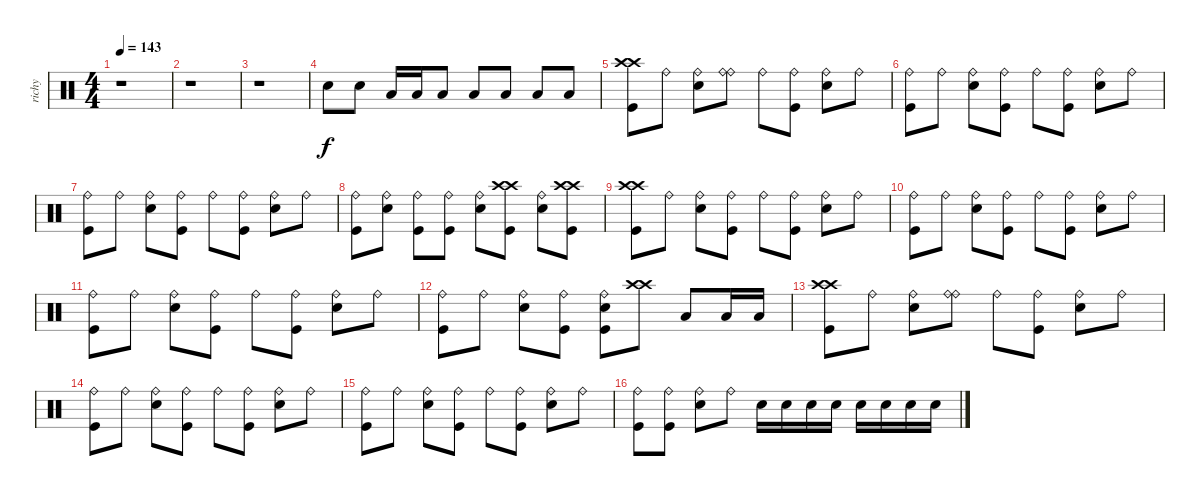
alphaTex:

\track ("richy" "richy") {instrument percussion}
\staff {score}
\articulation defaults
\ts (4 4)
\tempo 143
\clef neutral
\ks c
r.1{dy f} |
r.1 |
r.1 |
"Snare (hit) 2".8 "Snare (hit) 2".8 "Low Tom (hit)".16 "Low Tom (hit)".16 "Low Tom (hit)".8 "Low Floor Tom (hit)".8 "Low Floor Tom (hit)".8 "Low Floor Tom (hit)".8 "Low Floor Tom (hit)".8 |
("Kick (hit)" "Crash high (hit)" "Crash high (hit)").8 "Ride (bell)".8 ("Snare (hit) 2" "Ride (bell)").8 ("Ride (bell)" "Ride (bell)").8 "Ride (bell)".8 ("Kick (hit)" "Ride (bell)").8 ("Snare (hit) 2" "Ride (bell)").8 "Ride (bell)".8 |
("Kick (hit)" "Ride (bell)").8 "Ride (bell)".8 ("Snare (hit) 2" "Ride (bell)").8 ("Kick (hit)" "Ride (bell)").8 "Ride (bell)".8 ("Kick (hit)" "Ride (bell)").8 ("Snare (hit) 2" "Ride (bell)").8 "Ride (bell)".8 |
("Kick (hit)" "Ride (bell)").8 "Ride (bell)".8 ("Snare (hit) 2" "Ride (bell)").8 ("Kick (hit)" "Ride (bell)").8 "Ride (bell)".8 ("Kick (hit)" "Ride (bell)").8 ("Snare (hit) 2" "Ride (bell)").8 "Ride (bell)".8 |
("Kick (hit)" "Ride (bell)").8 ("Snare (hit) 2" "Ride (bell)").8 ("Kick (hit)" "Ride (bell)").8 ("Kick (hit)" "Ride (bell)").8 ("Snare (hit) 2" "Ride (bell)").8 ("Kick (hit)" "Crash high (hit)" "Crash high (hit)").8 ("Snare (hit) 2" "Ride (bell)").8 ("Kick (hit)" "Crash high (hit)" "Crash high (hit)").8 |
("Kick (hit)" "Crash high (hit)" "Crash high (hit)").8 "Ride (bell)".8 ("Snare (hit) 2" "Ride (bell)").8 ("Kick (hit)" "Ride (bell)").8 "Ride (bell)".8 ("Kick (hit)" "Ride (bell)").8 ("Snare (hit) 2" "Ride (bell)").8 "Ride (bell)".8 |
("Kick (hit)" "Ride (bell)").8 "Ride (bell)".8 ("Snare (hit) 2" "Ride (bell)").8 ("Kick (hit)" "Ride (bell)").8 "Ride (bell)".8 ("Kick (hit)" "Ride (bell)").8 ("Snare (hit) 2" "Ride (bell)").8 "Ride (bell)".8 |
("Kick (hit)" "Ride (bell)").8 "Ride (bell)".8 ("Snare (hit) 2" "Ride (bell)").8 ("Kick (hit)" "Ride (bell)").8 "Ride (bell)".8 ("Kick (hit)" "Ride (bell)").8 ("Snare (hit) 2" "Ride (bell)").8 "Ride (bell)".8 |
("Kick (hit)" "Ride (bell)").8 "Ride (bell)".8 ("Snare (hit) 2" "Ride (bell)").8 ("Kick (hit)" "Ride (bell)").8 ("Kick (hit)" "Snare (hit) 2" "Ride (bell)").8 ("Crash high (hit)" "Crash high (hit)").8 "Low Tom (hit)".8 "Low Tom (hit)".16 "Low Tom (hit)".16 |
("Kick (hit)" "Crash high (hit)" "Crash high (hit)").8 "Ride (bell)".8 ("Snare (hit) 2" "Ride (bell)").8 ("Ride (bell)" "Ride (bell)").8 "Ride (bell)".8 ("Kick (hit)" "Ride (bell)").8 ("Snare (hit) 2" "Ride (bell)").8 "Ride (bell)".8 |
("Kick (hit)" "Ride (bell)").8 "Ride (bell)".8 ("Snare (hit) 2" "Ride (bell)").8 ("Kick (hit)" "Ride (bell)").8 "Ride (bell)".8 ("Kick (hit)" "Ride (bell)").8 ("Snare (hit) 2" "Ride (bell)").8 "Ride (bell)".8 |
("Kick (hit)" "Ride (bell)").8 "Ride (bell)".8 ("Snare (hit) 2" "Ride (bell)").8 ("Kick (hit)" "Ride (bell)").8 "Ride (bell)".8 ("Kick (hit)" "Ride (bell)").8 ("Snare (hit) 2" "Ride (bell)").8 "Ride (bell)".8 |
("Kick (hit)" "Ride (bell)").8 ("Kick (hit)" "Ride (bell)").8 ("Snare (hit) 2" "Ride (bell)").8 "Ride (bell)".8 "Snare (hit) 2".16 "Snare (hit) 2".16 "Snare (hit) 2".16 "Snare (hit) 2".16 "Snare (hit) 2".16 "Snare (hit) 2".16 "Snare (hit) 2".16 "Snare (hit) 2".16
